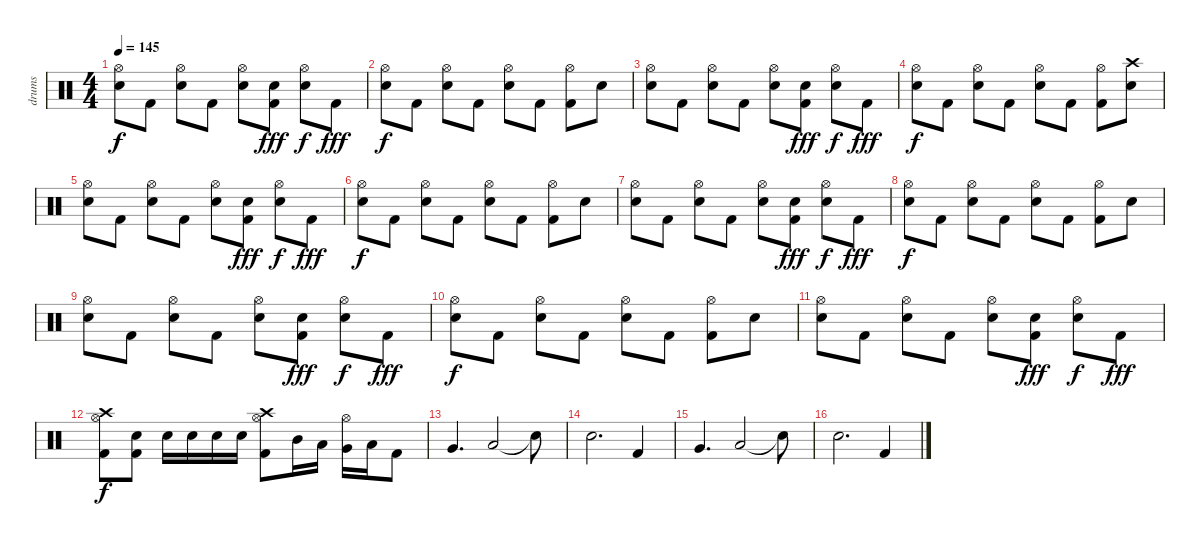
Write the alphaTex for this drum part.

\track ("drums" "drums") {instrument percussion}
\staff {score}
\articulation defaults
\ts (4 4)
\tempo 145
\clef neutral
\ks c
("Hi-Hat (open)" "Snare (hit) 2").8{dy f} "Kick (hit) 2".8 ("Hi-Hat (open)" "Snare (hit) 2").8 "Kick (hit) 2".8 ("Hi-Hat (open)" "Snare (hit) 2").8 ("Snare (hit) 2" "Kick (hit) 2").8{dy fff} ("Hi-Hat (open)" "Snare (hit) 2").8{dy f} "Kick (hit) 2".8{dy fff} |
("Hi-Hat (open)" "Snare (hit) 2").8{dy f} "Kick (hit) 2".8 ("Hi-Hat (open)" "Snare (hit) 2").8 "Kick (hit) 2".8 ("Hi-Hat (open)" "Snare (hit) 2").8 "Kick (hit) 2".8 ("Hi-Hat (open)" "Kick (hit) 2").8 "Snare (hit) 2".8 |
("Hi-Hat (open)" "Snare (hit) 2").8 "Kick (hit) 2".8 ("Hi-Hat (open)" "Snare (hit) 2").8 "Kick (hit) 2".8 ("Hi-Hat (open)" "Snare (hit) 2").8 ("Snare (hit) 2" "Kick (hit) 2").8{dy fff} ("Hi-Hat (open)" "Snare (hit) 2").8{dy f} "Kick (hit) 2".8{dy fff} |
("Hi-Hat (open)" "Snare (hit) 2").8{dy f} "Kick (hit) 2".8 ("Hi-Hat (open)" "Snare (hit) 2").8 "Kick (hit) 2".8 ("Hi-Hat (open)" "Snare (hit) 2").8 "Kick (hit) 2".8 ("Hi-Hat (open)" "Kick (hit) 2").8 ("Crash high (hit)" "Snare (hit) 2").8 |
("Hi-Hat (open)" "Snare (hit) 2").8 "Kick (hit) 2".8 ("Hi-Hat (open)" "Snare (hit) 2").8 "Kick (hit) 2".8 ("Hi-Hat (open)" "Snare (hit) 2").8 ("Snare (hit) 2" "Kick (hit) 2").8{dy fff} ("Hi-Hat (open)" "Snare (hit) 2").8{dy f} "Kick (hit) 2".8{dy fff} |
("Hi-Hat (open)" "Snare (hit) 2").8{dy f} "Kick (hit) 2".8 ("Hi-Hat (open)" "Snare (hit) 2").8 "Kick (hit) 2".8 ("Hi-Hat (open)" "Snare (hit) 2").8 "Kick (hit) 2".8 ("Hi-Hat (open)" "Kick (hit) 2").8 "Snare (hit) 2".8 |
("Hi-Hat (open)" "Snare (hit) 2").8 "Kick (hit) 2".8 ("Hi-Hat (open)" "Snare (hit) 2").8 "Kick (hit) 2".8 ("Hi-Hat (open)" "Snare (hit) 2").8 ("Snare (hit) 2" "Kick (hit) 2").8{dy fff} ("Hi-Hat (open)" "Snare (hit) 2").8{dy f} "Kick (hit) 2".8{dy fff} |
("Hi-Hat (open)" "Snare (hit) 2").8{dy f} "Kick (hit) 2".8 ("Hi-Hat (open)" "Snare (hit) 2").8 "Kick (hit) 2".8 ("Hi-Hat (open)" "Snare (hit) 2").8 "Kick (hit) 2".8 ("Hi-Hat (open)" "Kick (hit) 2").8 "Snare (hit) 2".8 |
("Hi-Hat (open)" "Snare (hit) 2").8 "Kick (hit) 2".8 ("Hi-Hat (open)" "Snare (hit) 2").8 "Kick (hit) 2".8 ("Hi-Hat (open)" "Snare (hit) 2").8 ("Snare (hit) 2" "Kick (hit) 2").8{dy fff} ("Hi-Hat (open)" "Snare (hit) 2").8{dy f} "Kick (hit) 2".8{dy fff} |
("Hi-Hat (open)" "Snare (hit) 2").8{dy f} "Kick (hit) 2".8 ("Hi-Hat (open)" "Snare (hit) 2").8 "Kick (hit) 2".8 ("Hi-Hat (open)" "Snare (hit) 2").8 "Kick (hit) 2".8 ("Hi-Hat (open)" "Kick (hit) 2").8 "Snare (hit) 2".8 |
("Hi-Hat (open)" "Snare (hit) 2").8 "Kick (hit) 2".8 ("Hi-Hat (open)" "Snare (hit) 2").8 "Kick (hit) 2".8 ("Hi-Hat (open)" "Snare (hit) 2").8 ("Snare (hit) 2" "Kick (hit) 2").8{dy fff} ("Hi-Hat (open)" "Snare (hit) 2").8{dy f} "Kick (hit) 2".8{dy fff} |
("Hi-Hat (open)" "Crash high (hit)" "Kick (hit) 2").8{dy f} ("Snare (hit) 2" "Kick (hit) 2").8 "Snare (hit) 2".16 "Snare (hit) 2".16 "Snare (hit) 2".16 "Snare (hit) 2".16 ("Hi-Hat (open)" "Crash high (hit)" "Kick (hit) 2").8 "Mid Tom (hit)".16 "Low Tom (hit)".16 ("Hi-Hat (open)" "Very Low Tom (hit)").16 "Low Floor Tom (hit)".16 "Kick (hit) 2".8 |
"Very Low Tom (hit)".4{d} "Low Floor Tom (hit)".2 "Snare (hit)"{t}.8 |
"Snare (hit) 2".2{d} "Kick (hit) 2".4 |
"Very Low Tom (hit)".4{d} "Low Floor Tom (hit)".2 "Snare (hit)"{t}.8 |
"Snare (hit) 2".2{d} "Kick (hit) 2".4
